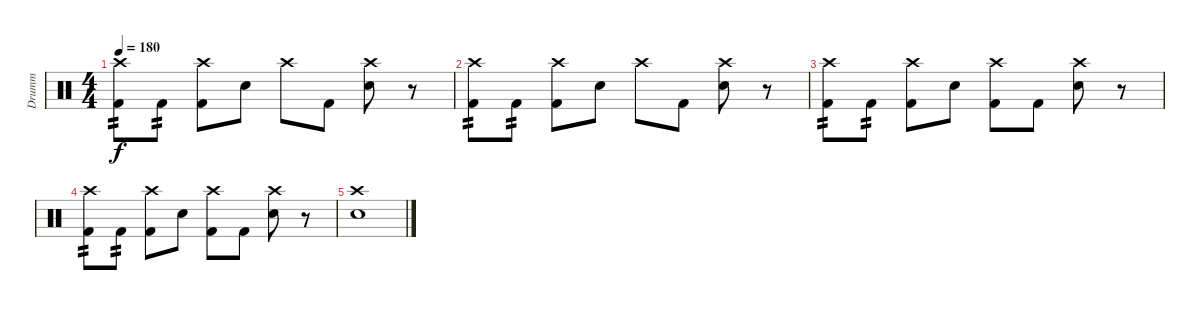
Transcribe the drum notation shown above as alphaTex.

\track ("Drumm" "Drumm") {instrument percussion}
\staff {score}
\articulation defaults
\ts (4 4)
\tempo 180
\clef neutral
\ks c
("Crash high (hit)" "Kick (hit) 2").8{tp 2 dy f} "Kick (hit) 2".8{tp 2} ("Crash high (hit)" "Kick (hit) 2").8 "Snare (hit) 2".8 "Crash high (hit)".8 "Kick (hit) 2".8 ("Crash high (hit)" "Snare (hit) 2").8 r.8 |
("Crash high (hit)" "Kick (hit) 2").8{tp 2} "Kick (hit) 2".8{tp 2} ("Crash high (hit)" "Kick (hit) 2").8 "Snare (hit) 2".8 "Crash high (hit)".8 "Kick (hit) 2".8 ("Crash high (hit)" "Snare (hit) 2").8 r.8 |
("Crash high (hit)" "Kick (hit) 2").8{tp 2} "Kick (hit) 2".8{tp 2} ("Crash high (hit)" "Kick (hit) 2").8 "Snare (hit) 2".8 ("Crash high (hit)" "Kick (hit) 2").8 "Kick (hit) 2".8 ("Crash high (hit)" "Snare (hit) 2").8 r.8 |
("Crash high (hit)" "Kick (hit) 2").8{tp 2} "Kick (hit) 2".8{tp 2} ("Crash high (hit)" "Kick (hit) 2").8 "Snare (hit) 2".8 ("Crash high (hit)" "Kick (hit) 2").8 "Kick (hit) 2".8 ("Crash high (hit)" "Snare (hit) 2").8 r.8 |
("Crash high (hit)" "Snare (hit) 2").1
